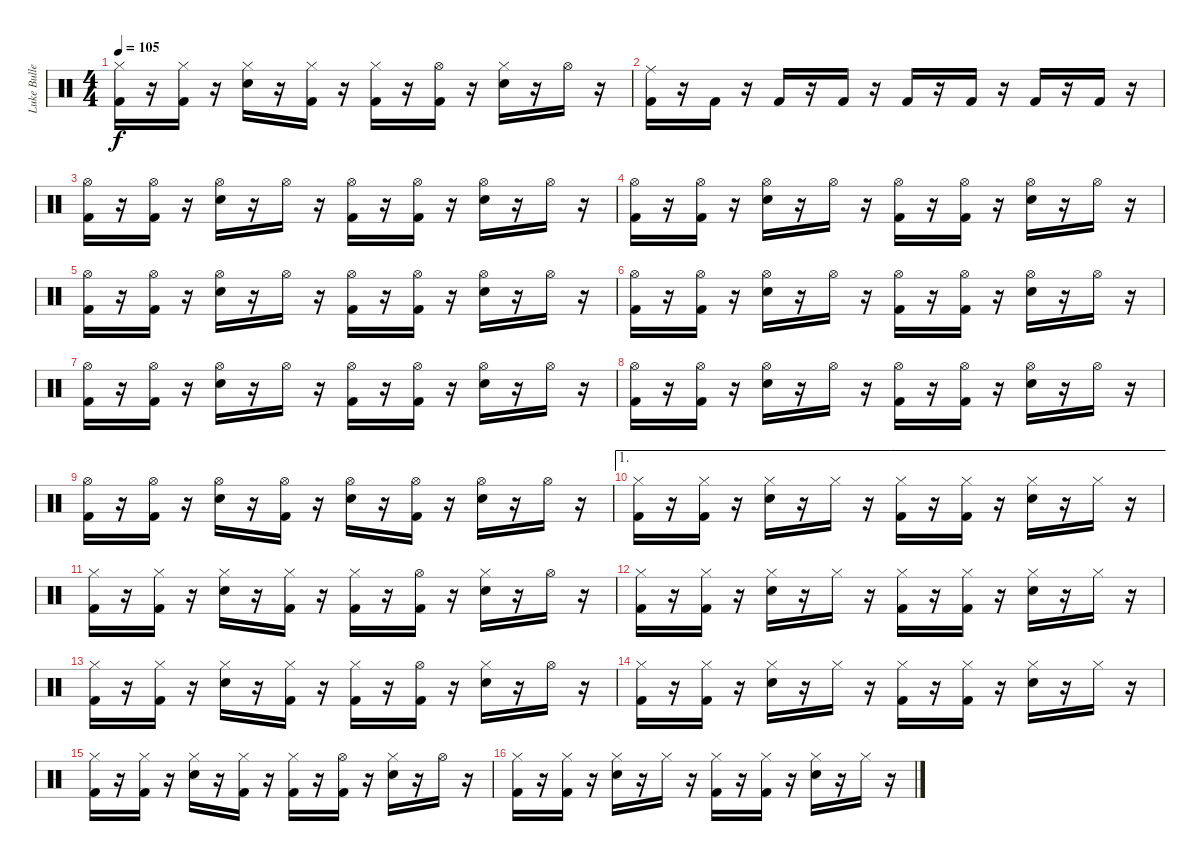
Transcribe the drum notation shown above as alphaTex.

\track ("Luke Bullen" "Luke Bulle") {instrument percussion}
\staff {score}
\articulation defaults
\ts (4 4)
\tempo 105
\clef neutral
\ks c
("Hi-Hat (closed)" "Kick (hit) 2").16{dy f} r.16 ("Hi-Hat (closed)" "Kick (hit) 2").16 r.16 ("Hi-Hat (closed)" "Electric Snare (hit)").16 r.16 ("Hi-Hat (closed)" "Kick (hit) 2").16 r.16 ("Hi-Hat (closed)" "Kick (hit) 2").16 r.16 ("Hi-Hat (open)" "Kick (hit) 2").16 r.16 ("Hi-Hat (closed)" "Electric Snare (hit)").16 r.16 "Hi-Hat (open)".16 r.16 |
("Ride (middle)" "Kick (hit) 2").16 r.16 "Kick (hit) 2".16 r.16 "Kick (hit) 2".16 r.16 "Kick (hit) 2".16 r.16 "Kick (hit) 2".16 r.16 "Kick (hit) 2".16 r.16 "Kick (hit) 2".16 r.16 "Kick (hit) 2".16 r.16 |
("Hi-Hat (open)" "Kick (hit) 2").16 r.16 ("Hi-Hat (open)" "Kick (hit) 2").16 r.16 ("Hi-Hat (open)" "Electric Snare (hit)").16 r.16 "Hi-Hat (open)".16 r.16 ("Hi-Hat (open)" "Kick (hit) 2").16 r.16 ("Hi-Hat (open)" "Kick (hit) 2").16 r.16 ("Hi-Hat (open)" "Electric Snare (hit)").16 r.16 "Hi-Hat (open)".16 r.16 |
("Hi-Hat (open)" "Kick (hit) 2").16 r.16 ("Hi-Hat (open)" "Kick (hit) 2").16 r.16 ("Hi-Hat (open)" "Electric Snare (hit)").16 r.16 "Hi-Hat (open)".16 r.16 ("Hi-Hat (open)" "Kick (hit) 2").16 r.16 ("Hi-Hat (open)" "Kick (hit) 2").16 r.16 ("Hi-Hat (open)" "Electric Snare (hit)").16 r.16 "Hi-Hat (open)".16 r.16 |
("Hi-Hat (open)" "Kick (hit) 2").16 r.16 ("Hi-Hat (open)" "Kick (hit) 2").16 r.16 ("Hi-Hat (open)" "Electric Snare (hit)").16 r.16 "Hi-Hat (open)".16 r.16 ("Hi-Hat (open)" "Kick (hit) 2").16 r.16 ("Hi-Hat (open)" "Kick (hit) 2").16 r.16 ("Hi-Hat (open)" "Electric Snare (hit)").16 r.16 "Hi-Hat (open)".16 r.16 |
("Hi-Hat (open)" "Kick (hit) 2").16 r.16 ("Hi-Hat (open)" "Kick (hit) 2").16 r.16 ("Hi-Hat (open)" "Electric Snare (hit)").16 r.16 "Hi-Hat (open)".16 r.16 ("Hi-Hat (open)" "Kick (hit) 2").16 r.16 ("Hi-Hat (open)" "Kick (hit) 2").16 r.16 ("Hi-Hat (open)" "Electric Snare (hit)").16 r.16 "Hi-Hat (open)".16 r.16 |
("Hi-Hat (open)" "Kick (hit) 2").16 r.16 ("Hi-Hat (open)" "Kick (hit) 2").16 r.16 ("Hi-Hat (open)" "Electric Snare (hit)").16 r.16 "Hi-Hat (open)".16 r.16 ("Hi-Hat (open)" "Kick (hit) 2").16 r.16 ("Hi-Hat (open)" "Kick (hit) 2").16 r.16 ("Hi-Hat (open)" "Electric Snare (hit)").16 r.16 "Hi-Hat (open)".16 r.16 |
("Hi-Hat (open)" "Kick (hit) 2").16 r.16 ("Hi-Hat (open)" "Kick (hit) 2").16 r.16 ("Hi-Hat (open)" "Electric Snare (hit)").16 r.16 "Hi-Hat (open)".16 r.16 ("Hi-Hat (open)" "Kick (hit) 2").16 r.16 ("Hi-Hat (open)" "Kick (hit) 2").16 r.16 ("Hi-Hat (open)" "Electric Snare (hit)").16 r.16 "Hi-Hat (open)".16 r.16 |
("Hi-Hat (open)" "Kick (hit) 2").16 r.16 ("Hi-Hat (open)" "Kick (hit) 2").16 r.16 ("Hi-Hat (open)" "Electric Snare (hit)").16 r.16 ("Hi-Hat (open)" "Kick (hit) 2").16 r.16 ("Hi-Hat (open)" "Electric Snare (hit)").16 r.16 ("Hi-Hat (open)" "Kick (hit) 2").16 r.16 ("Hi-Hat (open)" "Electric Snare (hit)").16 r.16 "Hi-Hat (open)".16 r.16 |
\ae 1
("Hi-Hat (closed)" "Kick (hit) 2").16 r.16 ("Hi-Hat (closed)" "Kick (hit) 2").16 r.16 ("Hi-Hat (closed)" "Electric Snare (hit)").16 r.16 "Hi-Hat (closed)".16 r.16 ("Hi-Hat (closed)" "Kick (hit) 2").16 r.16 ("Hi-Hat (closed)" "Kick (hit) 2").16 r.16 ("Hi-Hat (closed)" "Electric Snare (hit)").16 r.16 "Hi-Hat (closed)".16 r.16 |
("Hi-Hat (closed)" "Kick (hit) 2").16 r.16 ("Hi-Hat (closed)" "Kick (hit) 2").16 r.16 ("Hi-Hat (closed)" "Electric Snare (hit)").16 r.16 ("Hi-Hat (closed)" "Kick (hit) 2").16 r.16 ("Hi-Hat (closed)" "Kick (hit) 2").16 r.16 ("Hi-Hat (open)" "Kick (hit) 2").16 r.16 ("Hi-Hat (closed)" "Electric Snare (hit)").16 r.16 "Hi-Hat (open)".16 r.16 |
("Hi-Hat (closed)" "Kick (hit) 2").16 r.16 ("Hi-Hat (closed)" "Kick (hit) 2").16 r.16 ("Hi-Hat (closed)" "Electric Snare (hit)").16 r.16 "Hi-Hat (closed)".16 r.16 ("Hi-Hat (closed)" "Kick (hit) 2").16 r.16 ("Hi-Hat (closed)" "Kick (hit) 2").16 r.16 ("Hi-Hat (closed)" "Electric Snare (hit)").16 r.16 "Hi-Hat (closed)".16 r.16 |
("Hi-Hat (closed)" "Kick (hit) 2").16 r.16 ("Hi-Hat (closed)" "Kick (hit) 2").16 r.16 ("Hi-Hat (closed)" "Electric Snare (hit)").16 r.16 ("Hi-Hat (closed)" "Kick (hit) 2").16 r.16 ("Hi-Hat (closed)" "Kick (hit) 2").16 r.16 ("Hi-Hat (open)" "Kick (hit) 2").16 r.16 ("Hi-Hat (closed)" "Electric Snare (hit)").16 r.16 "Hi-Hat (open)".16 r.16 |
("Hi-Hat (closed)" "Kick (hit) 2").16 r.16 ("Hi-Hat (closed)" "Kick (hit) 2").16 r.16 ("Hi-Hat (closed)" "Electric Snare (hit)").16 r.16 "Hi-Hat (closed)".16 r.16 ("Hi-Hat (closed)" "Kick (hit) 2").16 r.16 ("Hi-Hat (closed)" "Kick (hit) 2").16 r.16 ("Hi-Hat (closed)" "Electric Snare (hit)").16 r.16 "Hi-Hat (closed)".16 r.16 |
("Hi-Hat (closed)" "Kick (hit) 2").16 r.16 ("Hi-Hat (closed)" "Kick (hit) 2").16 r.16 ("Hi-Hat (closed)" "Electric Snare (hit)").16 r.16 ("Hi-Hat (closed)" "Kick (hit) 2").16 r.16 ("Hi-Hat (closed)" "Kick (hit) 2").16 r.16 ("Hi-Hat (open)" "Kick (hit) 2").16 r.16 ("Hi-Hat (closed)" "Electric Snare (hit)").16 r.16 "Hi-Hat (open)".16 r.16 |
("Hi-Hat (closed)" "Kick (hit) 2").16 r.16 ("Hi-Hat (closed)" "Kick (hit) 2").16 r.16 ("Hi-Hat (closed)" "Electric Snare (hit)").16 r.16 "Hi-Hat (closed)".16 r.16 ("Hi-Hat (closed)" "Kick (hit) 2").16 r.16 ("Hi-Hat (closed)" "Kick (hit) 2").16 r.16 ("Hi-Hat (closed)" "Electric Snare (hit)").16 r.16 "Hi-Hat (closed)".16 r.16
